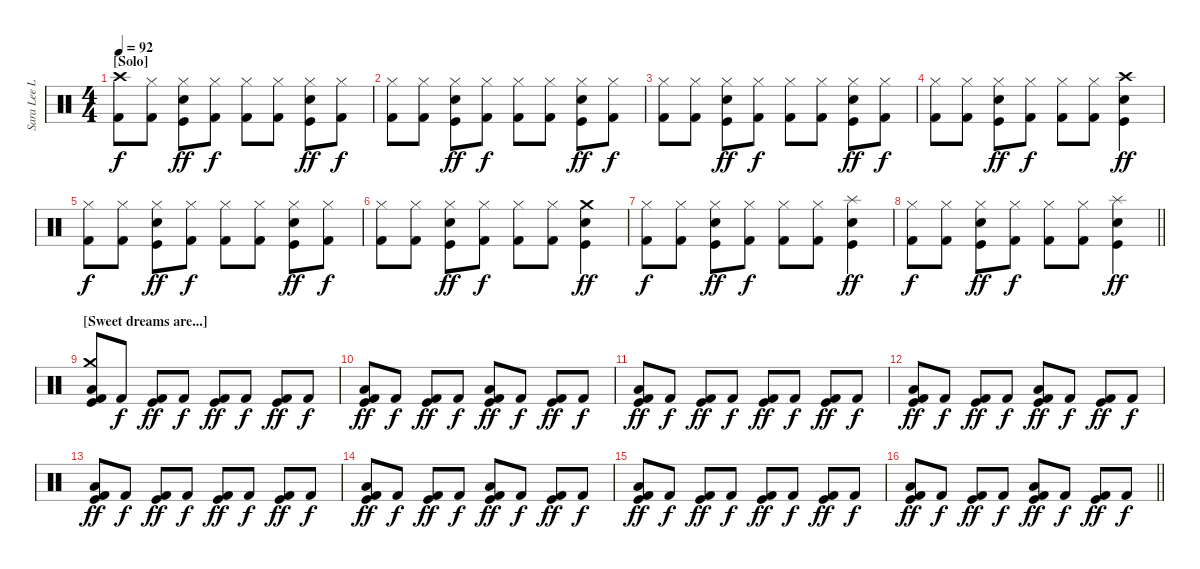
\track ("Sara Lee Lucas (Drums)" "Sara Lee L") {instrument percussion}
\staff {score}
\articulation defaults
\ts (4 4)
\section ("" "[Solo]")
\tempo 92
\clef neutral
\ks c
("Crash high (hit)" "Kick (hit) 2").8{dy f} ("Hi-Hat (closed)" "Kick (hit) 2").8 ("Hi-Hat (closed)" "Snare (hit) 2" "Kick (hit)").8{dy ff} ("Hi-Hat (closed)" "Kick (hit) 2").8{dy f} ("Hi-Hat (closed)" "Kick (hit) 2").8 ("Hi-Hat (closed)" "Kick (hit) 2").8 ("Hi-Hat (closed)" "Snare (hit) 2" "Kick (hit)").8{dy ff} ("Hi-Hat (closed)" "Kick (hit) 2").8{dy f} |
("Hi-Hat (closed)" "Kick (hit) 2").8 ("Hi-Hat (closed)" "Kick (hit) 2").8 ("Hi-Hat (closed)" "Snare (hit) 2" "Kick (hit)").8{dy ff} ("Hi-Hat (closed)" "Kick (hit) 2").8{dy f} ("Hi-Hat (closed)" "Kick (hit) 2").8 ("Hi-Hat (closed)" "Kick (hit) 2").8 ("Hi-Hat (closed)" "Snare (hit) 2" "Kick (hit)").8{dy ff} ("Hi-Hat (closed)" "Kick (hit) 2").8{dy f} |
("Hi-Hat (closed)" "Kick (hit) 2").8 ("Hi-Hat (closed)" "Kick (hit) 2").8 ("Hi-Hat (closed)" "Snare (hit) 2" "Kick (hit)").8{dy ff} ("Hi-Hat (closed)" "Kick (hit) 2").8{dy f} ("Hi-Hat (closed)" "Kick (hit) 2").8 ("Hi-Hat (closed)" "Kick (hit) 2").8 ("Hi-Hat (closed)" "Snare (hit) 2" "Kick (hit)").8{dy ff} ("Hi-Hat (closed)" "Kick (hit) 2").8{dy f} |
("Hi-Hat (closed)" "Kick (hit) 2").8 ("Hi-Hat (closed)" "Kick (hit) 2").8 ("Hi-Hat (closed)" "Snare (hit) 2" "Kick (hit)").8{dy ff} ("Hi-Hat (closed)" "Kick (hit) 2").8{dy f} ("Hi-Hat (closed)" "Kick (hit) 2").8 ("Hi-Hat (closed)" "Kick (hit) 2").8 ("Crash high (hit)" "Snare (hit) 2" "Kick (hit)").4{dy ff} |
("Hi-Hat (closed)" "Kick (hit) 2").8{dy f} ("Hi-Hat (closed)" "Kick (hit) 2").8 ("Hi-Hat (closed)" "Snare (hit) 2" "Kick (hit)").8{dy ff} ("Hi-Hat (closed)" "Kick (hit) 2").8{dy f} ("Hi-Hat (closed)" "Kick (hit) 2").8 ("Hi-Hat (closed)" "Kick (hit) 2").8 ("Hi-Hat (closed)" "Snare (hit) 2" "Kick (hit)").8{dy ff} ("Hi-Hat (closed)" "Kick (hit) 2").8{dy f} |
("Hi-Hat (closed)" "Kick (hit) 2").8 ("Hi-Hat (closed)" "Kick (hit) 2").8 ("Hi-Hat (closed)" "Snare (hit) 2" "Kick (hit)").8{dy ff} ("Hi-Hat (closed)" "Kick (hit) 2").8{dy f} ("Hi-Hat (closed)" "Kick (hit) 2").8 ("Hi-Hat (closed)" "Kick (hit) 2").8 ("Crash medium (hit)" "Snare (hit) 2" "Kick (hit)").4{dy ff} |
("Hi-Hat (closed)" "Kick (hit) 2").8{dy f} ("Hi-Hat (closed)" "Kick (hit) 2").8 ("Hi-Hat (closed)" "Snare (hit) 2" "Kick (hit)").8{dy ff} ("Hi-Hat (closed)" "Kick (hit) 2").8{dy f} ("Hi-Hat (closed)" "Kick (hit) 2").8 ("Hi-Hat (closed)" "Kick (hit) 2").8 ("Splash (hit)" "Snare (hit) 2" "Kick (hit)").4{dy ff} |
\barLineRight lightlight
("Hi-Hat (closed)" "Kick (hit) 2").8{dy f} ("Hi-Hat (closed)" "Kick (hit) 2").8 ("Hi-Hat (closed)" "Snare (hit) 2" "Kick (hit)").8{dy ff} ("Hi-Hat (closed)" "Kick (hit) 2").8{dy f} ("Hi-Hat (closed)" "Kick (hit) 2").8 ("Hi-Hat (closed)" "Kick (hit) 2").8 ("Splash (hit)" "Snare (hit) 2" "Kick (hit)").4{dy ff} |
\section ("" "[Sweet dreams are...]")
("Crash medium (hit)" "Low Floor Tom (hit)" "Kick (hit) 2" "Kick (hit)").8 "Kick (hit) 2".8{dy f} ("Kick (hit) 2" "Kick (hit)").8{dy ff} "Kick (hit) 2".8{dy f} ("Kick (hit) 2" "Kick (hit)").8{dy ff} "Kick (hit) 2".8{dy f} ("Kick (hit) 2" "Kick (hit)").8{dy ff} "Kick (hit) 2".8{dy f} |
("Low Floor Tom (hit)" "Kick (hit) 2" "Kick (hit)").8{dy ff} "Kick (hit) 2".8{dy f} ("Kick (hit) 2" "Kick (hit)").8{dy ff} "Kick (hit) 2".8{dy f} ("Low Floor Tom (hit)" "Kick (hit) 2" "Kick (hit)").8{dy ff} "Kick (hit) 2".8{dy f} ("Kick (hit) 2" "Kick (hit)").8{dy ff} "Kick (hit) 2".8{dy f} |
("Low Floor Tom (hit)" "Kick (hit) 2" "Kick (hit)").8{dy ff} "Kick (hit) 2".8{dy f} ("Kick (hit) 2" "Kick (hit)").8{dy ff} "Kick (hit) 2".8{dy f} ("Kick (hit) 2" "Kick (hit)").8{dy ff} "Kick (hit) 2".8{dy f} ("Kick (hit) 2" "Kick (hit)").8{dy ff} "Kick (hit) 2".8{dy f} |
("Low Floor Tom (hit)" "Kick (hit) 2" "Kick (hit)").8{dy ff} "Kick (hit) 2".8{dy f} ("Kick (hit) 2" "Kick (hit)").8{dy ff} "Kick (hit) 2".8{dy f} ("Low Floor Tom (hit)" "Kick (hit) 2" "Kick (hit)").8{dy ff} "Kick (hit) 2".8{dy f} ("Kick (hit) 2" "Kick (hit)").8{dy ff} "Kick (hit) 2".8{dy f} |
("Low Floor Tom (hit)" "Kick (hit) 2" "Kick (hit)").8{dy ff} "Kick (hit) 2".8{dy f} ("Kick (hit) 2" "Kick (hit)").8{dy ff} "Kick (hit) 2".8{dy f} ("Kick (hit) 2" "Kick (hit)").8{dy ff} "Kick (hit) 2".8{dy f} ("Kick (hit) 2" "Kick (hit)").8{dy ff} "Kick (hit) 2".8{dy f} |
("Low Floor Tom (hit)" "Kick (hit) 2" "Kick (hit)").8{dy ff} "Kick (hit) 2".8{dy f} ("Kick (hit) 2" "Kick (hit)").8{dy ff} "Kick (hit) 2".8{dy f} ("Low Floor Tom (hit)" "Kick (hit) 2" "Kick (hit)").8{dy ff} "Kick (hit) 2".8{dy f} ("Kick (hit) 2" "Kick (hit)").8{dy ff} "Kick (hit) 2".8{dy f} |
("Low Floor Tom (hit)" "Kick (hit) 2" "Kick (hit)").8{dy ff} "Kick (hit) 2".8{dy f} ("Kick (hit) 2" "Kick (hit)").8{dy ff} "Kick (hit) 2".8{dy f} ("Kick (hit) 2" "Kick (hit)").8{dy ff} "Kick (hit) 2".8{dy f} ("Kick (hit) 2" "Kick (hit)").8{dy ff} "Kick (hit) 2".8{dy f} |
\barLineRight lightlight
("Low Floor Tom (hit)" "Kick (hit) 2" "Kick (hit)").8{dy ff} "Kick (hit) 2".8{dy f} ("Kick (hit) 2" "Kick (hit)").8{dy ff} "Kick (hit) 2".8{dy f} ("Low Floor Tom (hit)" "Kick (hit) 2" "Kick (hit)").8{dy ff} "Kick (hit) 2".8{dy f} ("Kick (hit) 2" "Kick (hit)").8{dy ff} "Kick (hit) 2".8{dy f}
